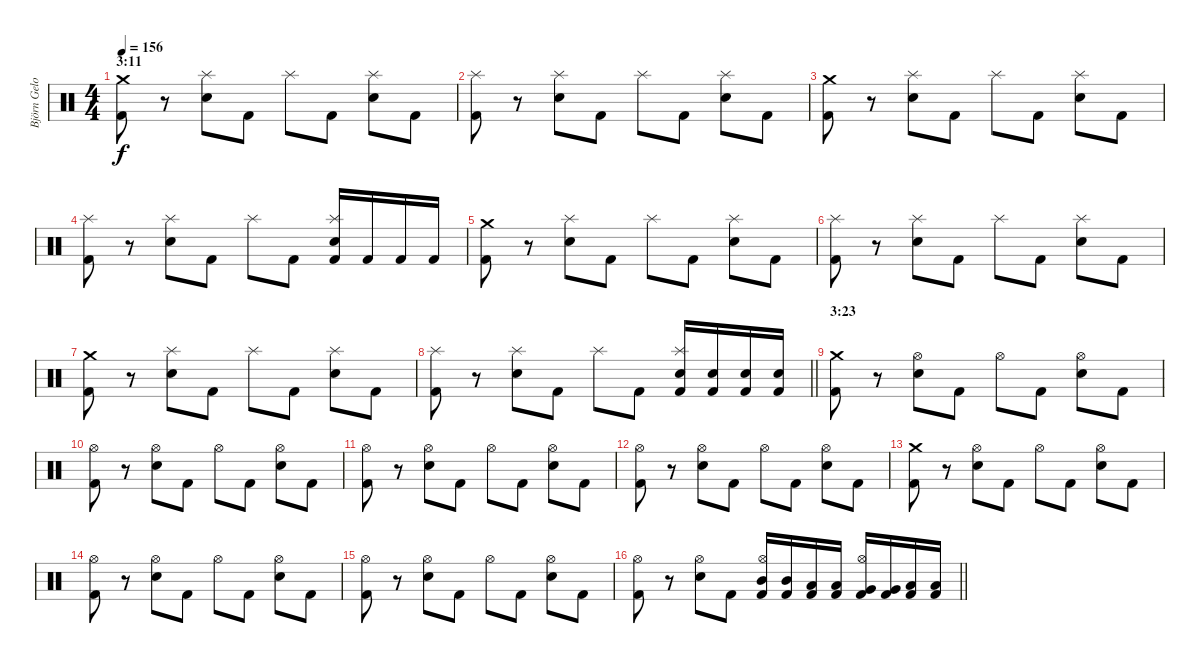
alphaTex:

\track ("Björn Gelotte" "Björn Gelo") {instrument percussion}
\staff {score}
\articulation defaults
\ts (4 4)
\section ("" "3:11")
\tempo 156
\clef neutral
\ks c
("Crash medium (hit)" "Kick (hit) 2").8{dy f} r.8 ("Splash (hit)" "Electric Snare (hit)").8 "Kick (hit) 2".8 "Splash (hit)".8 "Kick (hit) 2".8 ("Splash (hit)" "Electric Snare (hit)").8 "Kick (hit) 2".8 |
("Splash (hit)" "Kick (hit) 2").8 r.8 ("Splash (hit)" "Electric Snare (hit)").8 "Kick (hit) 2".8 "Splash (hit)".8 "Kick (hit) 2".8 ("Splash (hit)" "Electric Snare (hit)").8 "Kick (hit) 2".8 |
("Crash medium (hit)" "Kick (hit) 2").8 r.8 ("Splash (hit)" "Electric Snare (hit)").8 "Kick (hit) 2".8 "Splash (hit)".8 "Kick (hit) 2".8 ("Splash (hit)" "Electric Snare (hit)").8 "Kick (hit) 2".8 |
("Splash (hit)" "Kick (hit) 2").8 r.8 ("Splash (hit)" "Electric Snare (hit)").8 "Kick (hit) 2".8 "Splash (hit)".8 "Kick (hit) 2".8 ("Splash (hit)" "Electric Snare (hit)" "Kick (hit) 2").16 "Kick (hit) 2".16 "Kick (hit) 2".16 "Kick (hit) 2".16 |
("Crash medium (hit)" "Kick (hit) 2").8 r.8 ("Splash (hit)" "Electric Snare (hit)").8 "Kick (hit) 2".8 "Splash (hit)".8 "Kick (hit) 2".8 ("Splash (hit)" "Electric Snare (hit)").8 "Kick (hit) 2".8 |
("Splash (hit)" "Kick (hit) 2").8 r.8 ("Splash (hit)" "Electric Snare (hit)").8 "Kick (hit) 2".8 "Splash (hit)".8 "Kick (hit) 2".8 ("Splash (hit)" "Electric Snare (hit)").8 "Kick (hit) 2".8 |
("Crash medium (hit)" "Kick (hit) 2").8 r.8 ("Splash (hit)" "Electric Snare (hit)").8 "Kick (hit) 2".8 "Splash (hit)".8 "Kick (hit) 2".8 ("Splash (hit)" "Electric Snare (hit)").8 "Kick (hit) 2".8 |
\barLineRight lightlight
("Splash (hit)" "Kick (hit) 2").8 r.8 ("Splash (hit)" "Electric Snare (hit)").8 "Kick (hit) 2".8 "Splash (hit)".8 "Kick (hit) 2".8 ("Splash (hit)" "Electric Snare (hit)" "Kick (hit) 2").16 ("Electric Snare (hit)" "Kick (hit) 2").16 ("Electric Snare (hit)" "Kick (hit) 2").16 ("Electric Snare (hit)" "Kick (hit) 2").16 |
\section ("" "3:23")
("Crash medium (hit)" "Kick (hit) 2").8 r.8 ("Hi-Hat (open)" "Electric Snare (hit)").8 "Kick (hit) 2".8 "Hi-Hat (open)".8 "Kick (hit) 2".8 ("Hi-Hat (open)" "Electric Snare (hit)").8 "Kick (hit) 2".8 |
("Hi-Hat (open)" "Kick (hit) 2").8 r.8 ("Hi-Hat (open)" "Electric Snare (hit)").8 "Kick (hit) 2".8 "Hi-Hat (open)".8 "Kick (hit) 2".8 ("Hi-Hat (open)" "Electric Snare (hit)").8 "Kick (hit) 2".8 |
("Hi-Hat (open)" "Kick (hit) 2").8 r.8 ("Hi-Hat (open)" "Electric Snare (hit)").8 "Kick (hit) 2".8 "Hi-Hat (open)".8 "Kick (hit) 2".8 ("Hi-Hat (open)" "Electric Snare (hit)").8 "Kick (hit) 2".8 |
("Hi-Hat (open)" "Kick (hit) 2").8 r.8 ("Hi-Hat (open)" "Electric Snare (hit)").8 "Kick (hit) 2".8 "Hi-Hat (open)".8 "Kick (hit) 2".8 ("Hi-Hat (open)" "Electric Snare (hit)").8 "Kick (hit) 2".8 |
("Crash medium (hit)" "Kick (hit) 2").8 r.8 ("Hi-Hat (open)" "Electric Snare (hit)").8 "Kick (hit) 2".8 "Hi-Hat (open)".8 "Kick (hit) 2".8 ("Hi-Hat (open)" "Electric Snare (hit)").8 "Kick (hit) 2".8 |
("Hi-Hat (open)" "Kick (hit) 2").8 r.8 ("Hi-Hat (open)" "Electric Snare (hit)").8 "Kick (hit) 2".8 "Hi-Hat (open)".8 "Kick (hit) 2".8 ("Hi-Hat (open)" "Electric Snare (hit)").8 "Kick (hit) 2".8 |
("Hi-Hat (open)" "Kick (hit) 2").8 r.8 ("Hi-Hat (open)" "Electric Snare (hit)").8 "Kick (hit) 2".8 "Hi-Hat (open)".8 "Kick (hit) 2".8 ("Hi-Hat (open)" "Electric Snare (hit)").8 "Kick (hit) 2".8 |
\barLineRight lightlight
("Hi-Hat (open)" "Kick (hit) 2").8 r.8 ("Hi-Hat (open)" "Electric Snare (hit)").8 "Kick (hit) 2".8 ("Hi-Hat (open)" "Mid Tom (hit)" "Kick (hit) 2").16 ("Mid Tom (hit)" "Kick (hit) 2").16 ("Low Tom (hit)" "Kick (hit) 2").16 ("Low Tom (hit)" "Kick (hit) 2").16 ("Hi-Hat (open)" "Very Low Tom (hit)" "Kick (hit) 2").16 ("Very Low Tom (hit)" "Kick (hit) 2").16 ("Low Floor Tom (hit)" "Kick (hit) 2").16 ("Low Floor Tom (hit)" "Kick (hit) 2").16
